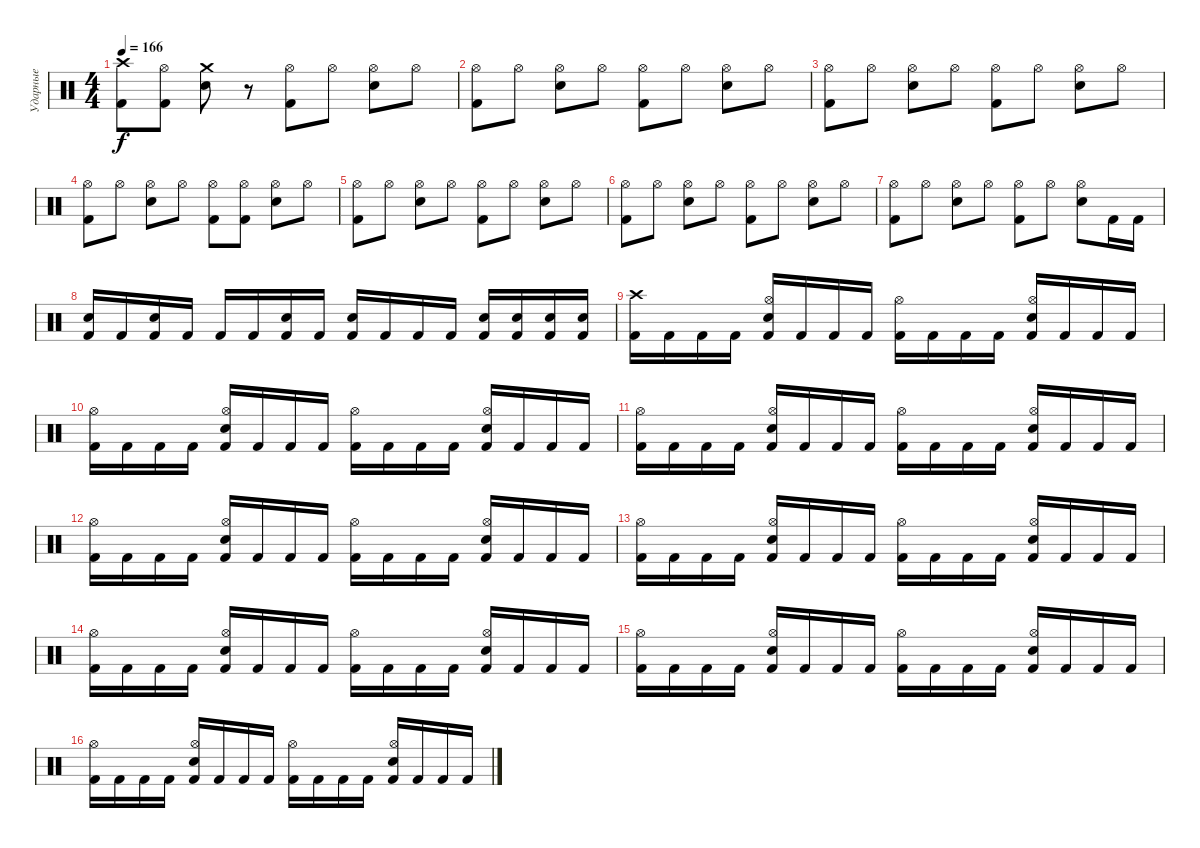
\track ("Ударные" "Ударные") {instrument percussion}
\staff {score}
\articulation defaults
\ts (4 4)
\tempo 166
\clef neutral
\ks c
("Crash high (hit)" "Kick (hit) 2").8{dy f} ("Hi-Hat (open)" "Kick (hit) 2").8 ("Crash medium (hit)" "Electric Snare (hit)").8 r.8 ("Hi-Hat (open)" "Kick (hit) 2").8 "Hi-Hat (open)".8 ("Hi-Hat (open)" "Electric Snare (hit)").8 "Hi-Hat (open)".8 |
("Hi-Hat (open)" "Kick (hit) 2").8 "Hi-Hat (open)".8 ("Hi-Hat (open)" "Electric Snare (hit)").8 "Hi-Hat (open)".8 ("Hi-Hat (open)" "Kick (hit) 2").8 "Hi-Hat (open)".8 ("Hi-Hat (open)" "Electric Snare (hit)").8 "Hi-Hat (open)".8 |
("Hi-Hat (open)" "Kick (hit) 2").8 "Hi-Hat (open)".8 ("Hi-Hat (open)" "Electric Snare (hit)").8 "Hi-Hat (open)".8 ("Hi-Hat (open)" "Kick (hit) 2").8 "Hi-Hat (open)".8 ("Hi-Hat (open)" "Electric Snare (hit)").8 "Hi-Hat (open)".8 |
("Hi-Hat (open)" "Kick (hit) 2").8 "Hi-Hat (open)".8 ("Hi-Hat (open)" "Electric Snare (hit)").8 "Hi-Hat (open)".8 ("Hi-Hat (open)" "Kick (hit) 2").8 ("Hi-Hat (open)" "Kick (hit) 2").8 ("Hi-Hat (open)" "Electric Snare (hit)").8 "Hi-Hat (open)".8 |
("Hi-Hat (open)" "Kick (hit) 2").8 "Hi-Hat (open)".8 ("Hi-Hat (open)" "Electric Snare (hit)").8 "Hi-Hat (open)".8 ("Hi-Hat (open)" "Kick (hit) 2").8 "Hi-Hat (open)".8 ("Hi-Hat (open)" "Electric Snare (hit)").8 "Hi-Hat (open)".8 |
("Hi-Hat (open)" "Kick (hit) 2").8 "Hi-Hat (open)".8 ("Hi-Hat (open)" "Electric Snare (hit)").8 "Hi-Hat (open)".8 ("Hi-Hat (open)" "Kick (hit) 2").8 "Hi-Hat (open)".8 ("Hi-Hat (open)" "Electric Snare (hit)").8 "Hi-Hat (open)".8 |
("Hi-Hat (open)" "Kick (hit) 2").8 "Hi-Hat (open)".8 ("Hi-Hat (open)" "Electric Snare (hit)").8 "Hi-Hat (open)".8 ("Hi-Hat (open)" "Kick (hit) 2").8 "Hi-Hat (open)".8 ("Hi-Hat (open)" "Electric Snare (hit)").8 "Kick (hit) 2".16 "Kick (hit) 2".16 |
("Electric Snare (hit)" "Kick (hit) 2").16 "Kick (hit) 2".16 ("Electric Snare (hit)" "Kick (hit) 2").16 "Kick (hit) 2".16 "Kick (hit) 2".16 "Kick (hit) 2".16 ("Electric Snare (hit)" "Kick (hit) 2").16 "Kick (hit) 2".16 ("Electric Snare (hit)" "Kick (hit) 2").16 "Kick (hit) 2".16 "Kick (hit) 2".16 "Kick (hit) 2".16 ("Electric Snare (hit)" "Kick (hit) 2").16 ("Electric Snare (hit)" "Kick (hit) 2").16 ("Electric Snare (hit)" "Kick (hit) 2").16 ("Electric Snare (hit)" "Kick (hit) 2").16 |
("Crash high (hit)" "Kick (hit) 2").16 "Kick (hit) 2".16 "Kick (hit) 2".16 "Kick (hit) 2".16 ("Hi-Hat (open)" "Electric Snare (hit)" "Kick (hit) 2").16 "Kick (hit) 2".16 "Kick (hit) 2".16 "Kick (hit) 2".16 ("Hi-Hat (open)" "Kick (hit) 2").16 "Kick (hit) 2".16 "Kick (hit) 2".16 "Kick (hit) 2".16 ("Hi-Hat (open)" "Electric Snare (hit)" "Kick (hit) 2").16 "Kick (hit) 2".16 "Kick (hit) 2".16 "Kick (hit) 2".16 |
("Hi-Hat (open)" "Kick (hit) 2").16 "Kick (hit) 2".16 "Kick (hit) 2".16 "Kick (hit) 2".16 ("Hi-Hat (open)" "Electric Snare (hit)" "Kick (hit) 2").16 "Kick (hit) 2".16 "Kick (hit) 2".16 "Kick (hit) 2".16 ("Hi-Hat (open)" "Kick (hit) 2").16 "Kick (hit) 2".16 "Kick (hit) 2".16 "Kick (hit) 2".16 ("Hi-Hat (open)" "Electric Snare (hit)" "Kick (hit) 2").16 "Kick (hit) 2".16 "Kick (hit) 2".16 "Kick (hit) 2".16 |
("Hi-Hat (open)" "Kick (hit) 2").16 "Kick (hit) 2".16 "Kick (hit) 2".16 "Kick (hit) 2".16 ("Hi-Hat (open)" "Electric Snare (hit)" "Kick (hit) 2").16 "Kick (hit) 2".16 "Kick (hit) 2".16 "Kick (hit) 2".16 ("Hi-Hat (open)" "Kick (hit) 2").16 "Kick (hit) 2".16 "Kick (hit) 2".16 "Kick (hit) 2".16 ("Hi-Hat (open)" "Electric Snare (hit)" "Kick (hit) 2").16 "Kick (hit) 2".16 "Kick (hit) 2".16 "Kick (hit) 2".16 |
("Hi-Hat (open)" "Kick (hit) 2").16 "Kick (hit) 2".16 "Kick (hit) 2".16 "Kick (hit) 2".16 ("Hi-Hat (open)" "Electric Snare (hit)" "Kick (hit) 2").16 "Kick (hit) 2".16 "Kick (hit) 2".16 "Kick (hit) 2".16 ("Hi-Hat (open)" "Kick (hit) 2").16 "Kick (hit) 2".16 "Kick (hit) 2".16 "Kick (hit) 2".16 ("Hi-Hat (open)" "Electric Snare (hit)" "Kick (hit) 2").16 "Kick (hit) 2".16 "Kick (hit) 2".16 "Kick (hit) 2".16 |
("Hi-Hat (open)" "Kick (hit) 2").16 "Kick (hit) 2".16 "Kick (hit) 2".16 "Kick (hit) 2".16 ("Hi-Hat (open)" "Electric Snare (hit)" "Kick (hit) 2").16 "Kick (hit) 2".16 "Kick (hit) 2".16 "Kick (hit) 2".16 ("Hi-Hat (open)" "Kick (hit) 2").16 "Kick (hit) 2".16 "Kick (hit) 2".16 "Kick (hit) 2".16 ("Hi-Hat (open)" "Electric Snare (hit)" "Kick (hit) 2").16 "Kick (hit) 2".16 "Kick (hit) 2".16 "Kick (hit) 2".16 |
("Hi-Hat (open)" "Kick (hit) 2").16 "Kick (hit) 2".16 "Kick (hit) 2".16 "Kick (hit) 2".16 ("Hi-Hat (open)" "Electric Snare (hit)" "Kick (hit) 2").16 "Kick (hit) 2".16 "Kick (hit) 2".16 "Kick (hit) 2".16 ("Hi-Hat (open)" "Kick (hit) 2").16 "Kick (hit) 2".16 "Kick (hit) 2".16 "Kick (hit) 2".16 ("Hi-Hat (open)" "Electric Snare (hit)" "Kick (hit) 2").16 "Kick (hit) 2".16 "Kick (hit) 2".16 "Kick (hit) 2".16 |
("Hi-Hat (open)" "Kick (hit) 2").16 "Kick (hit) 2".16 "Kick (hit) 2".16 "Kick (hit) 2".16 ("Hi-Hat (open)" "Electric Snare (hit)" "Kick (hit) 2").16 "Kick (hit) 2".16 "Kick (hit) 2".16 "Kick (hit) 2".16 ("Hi-Hat (open)" "Kick (hit) 2").16 "Kick (hit) 2".16 "Kick (hit) 2".16 "Kick (hit) 2".16 ("Hi-Hat (open)" "Electric Snare (hit)" "Kick (hit) 2").16 "Kick (hit) 2".16 "Kick (hit) 2".16 "Kick (hit) 2".16 |
("Hi-Hat (open)" "Kick (hit) 2").16 "Kick (hit) 2".16 "Kick (hit) 2".16 "Kick (hit) 2".16 ("Hi-Hat (open)" "Electric Snare (hit)" "Kick (hit) 2").16 "Kick (hit) 2".16 "Kick (hit) 2".16 "Kick (hit) 2".16 ("Hi-Hat (open)" "Kick (hit) 2").16 "Kick (hit) 2".16 "Kick (hit) 2".16 "Kick (hit) 2".16 ("Hi-Hat (open)" "Electric Snare (hit)" "Kick (hit) 2").16 "Kick (hit) 2".16 "Kick (hit) 2".16 "Kick (hit) 2".16
